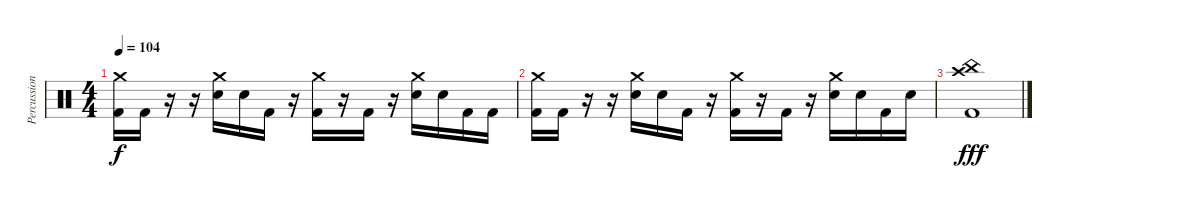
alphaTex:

\track ("Percussion" "Percussion") {instrument percussion}
\staff {score}
\articulation defaults
\ts (4 4)
\tempo 104
\clef neutral
\ks c
("Crash medium (hit)" "Kick (hit) 2").16{dy f} "Kick (hit) 2".16 r.16 r.16 ("Crash medium (hit)" "Electric Snare (hit)").16 "Electric Snare (hit)".16 "Kick (hit) 2".16 r.16 ("Crash medium (hit)" "Kick (hit) 2").16 r.16 "Kick (hit) 2".16 r.16 ("Crash medium (hit)" "Electric Snare (hit)").16 "Electric Snare (hit)".16 "Kick (hit) 2".16 "Kick (hit) 2".16 |
("Crash medium (hit)" "Kick (hit) 2").16 "Kick (hit) 2".16 r.16 r.16 ("Crash medium (hit)" "Electric Snare (hit)").16 "Electric Snare (hit)".16 "Kick (hit) 2".16 r.16 ("Crash medium (hit)" "Kick (hit) 2").16 r.16 "Kick (hit) 2".16 r.16 ("Crash medium (hit)" "Electric Snare (hit)").16 "Electric Snare (hit)".16 "Kick (hit) 2".16 "Electric Snare (hit)".16 |
("China (hit)" "Crash high (hit)" "Kick (hit) 2").1{dy fff}
